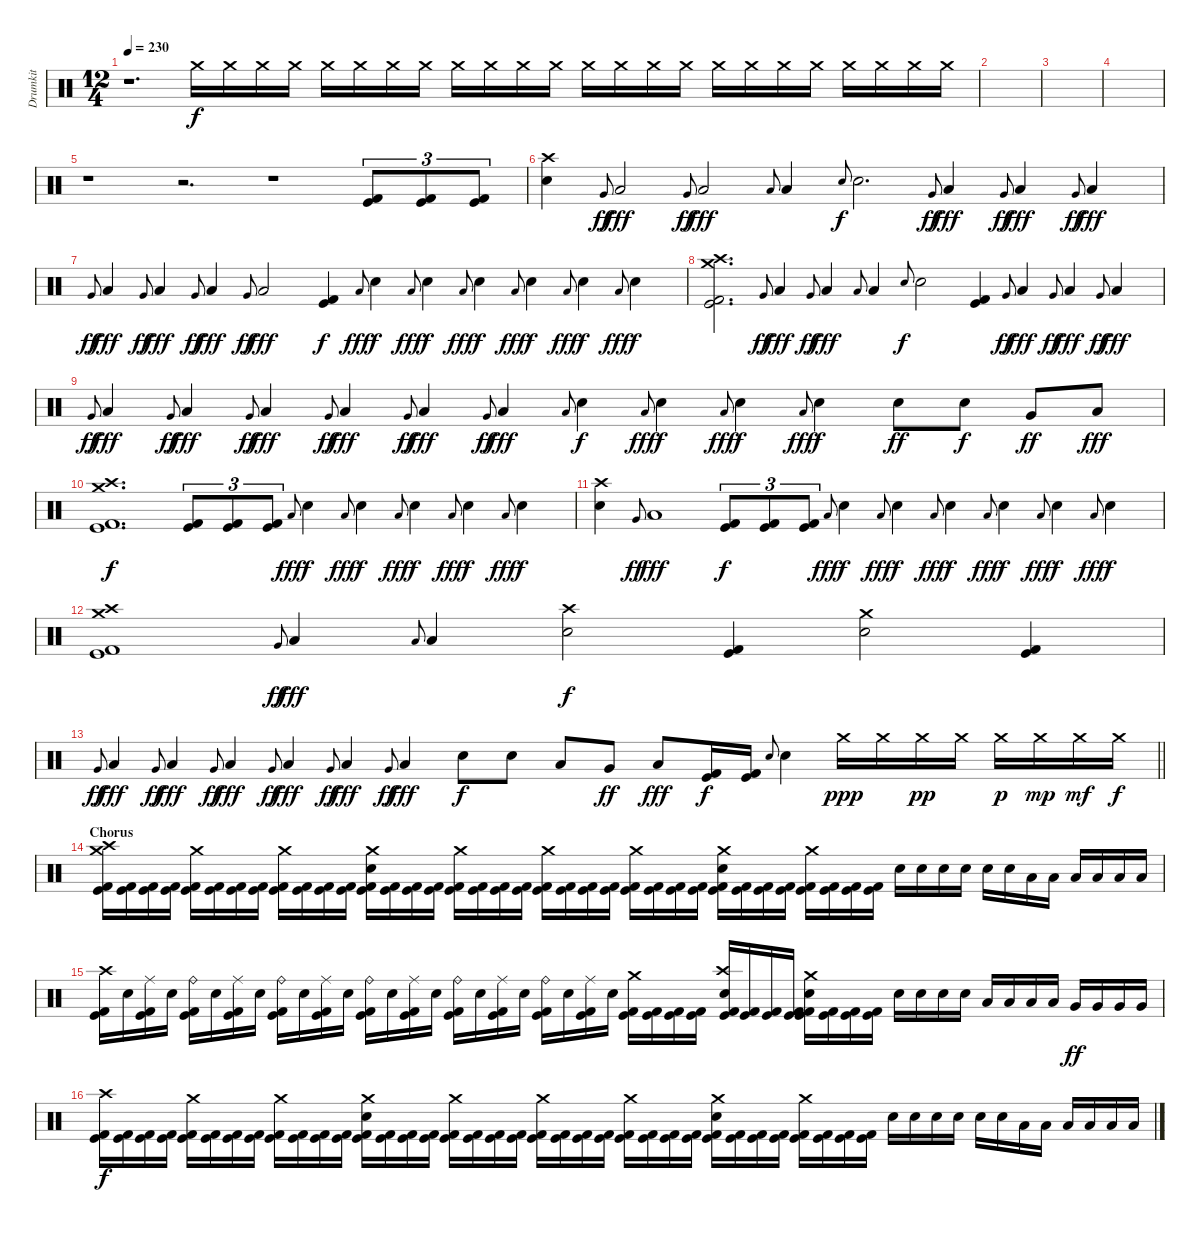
\track ("Drumkit" "Drumkit") {instrument percussion}
\staff {score}
\articulation defaults
\ts (12 4)
\tempo 230
\clef neutral
\ks c
r.1{d dy f volume 0} "Crash medium (hit)".16{volume 14} "Crash medium (hit)".16 "Crash medium (hit)".16 "Crash medium (hit)".16 "Crash medium (hit)".16 "Crash medium (hit)".16 "Crash medium (hit)".16 "Crash medium (hit)".16 "Crash medium (hit)".16 "Crash medium (hit)".16 "Crash medium (hit)".16 "Crash medium (hit)".16 "Crash medium (hit)".16 "Crash medium (hit)".16 "Crash medium (hit)".16 "Crash medium (hit)".16 "Crash medium (hit)".16 "Crash medium (hit)".16 "Crash medium (hit)".16 "Crash medium (hit)".16 "Crash medium (hit)".16 "Crash medium (hit)".16 "Crash medium (hit)".16 "Crash medium (hit)".16 |
|
|
|
r.1 r.2{d} r.1 ("Kick (hit)" "Kick (hit) 2").8{tu (3 2)} ("Kick (hit)" "Kick (hit) 2").8{tu (3 2)} ("Kick (hit)" "Kick (hit) 2").8{tu (3 2)} |
("Crash high (hit)" "Electric Snare (hit)").4 "Very Low Tom (hit)".8{gr onbeat dy ff} "Low Floor Tom (hit)".2{dy fff} "Very Low Tom (hit)".8{gr onbeat dy ff} "Low Floor Tom (hit)".2{dy fff} "Low Floor Tom (hit)".8{gr onbeat} "Low Floor Tom (hit)".4 "Electric Snare (hit)".8{gr onbeat dy f} "Electric Snare (hit)".2{d} "Very Low Tom (hit)".8{gr onbeat dy ff} "Low Floor Tom (hit)".4{dy fff} "Very Low Tom (hit)".8{gr onbeat dy ff} "Low Floor Tom (hit)".4{dy fff} "Very Low Tom (hit)".8{gr onbeat dy ff} "Low Floor Tom (hit)".4{dy fff} |
"Very Low Tom (hit)".8{gr onbeat dy ff} "Low Floor Tom (hit)".4{dy fff} "Very Low Tom (hit)".8{gr onbeat dy ff} "Low Floor Tom (hit)".4{dy fff} "Very Low Tom (hit)".8{gr onbeat dy ff} "Low Floor Tom (hit)".4{dy fff} "Very Low Tom (hit)".8{gr onbeat dy ff} "Low Floor Tom (hit)".2{dy fff} ("Kick (hit)" "Kick (hit) 2").4{dy f} "Low Floor Tom (hit)".8{gr onbeat dy fff} "Electric Snare (hit)".4{dy f} "Low Floor Tom (hit)".8{gr onbeat dy fff} "Electric Snare (hit)".4{dy f} "Low Floor Tom (hit)".8{gr onbeat dy fff} "Electric Snare (hit)".4{dy f} "Low Floor Tom (hit)".8{gr onbeat dy fff} "Electric Snare (hit)".4{dy f} "Low Floor Tom (hit)".8{gr onbeat dy fff} "Electric Snare (hit)".4{dy f} "Low Floor Tom (hit)".8{gr onbeat dy fff} "Electric Snare (hit)".4{dy f} |
("Crash high (hit)" "Crash medium (hit)" "Kick (hit)" "Kick (hit) 2").2{d} "Very Low Tom (hit)".8{gr onbeat dy ff} "Low Floor Tom (hit)".4{dy fff} "Very Low Tom (hit)".8{gr onbeat dy ff} "Low Floor Tom (hit)".4{dy fff} "Low Floor Tom (hit)".8{gr onbeat} "Low Floor Tom (hit)".4 "Electric Snare (hit)".8{gr onbeat dy f} "Electric Snare (hit)".2 ("Kick (hit)" "Kick (hit) 2").4 "Very Low Tom (hit)".8{gr onbeat dy ff} "Low Floor Tom (hit)".4{dy fff} "Very Low Tom (hit)".8{gr onbeat dy ff} "Low Floor Tom (hit)".4{dy fff} "Very Low Tom (hit)".8{gr onbeat dy ff} "Low Floor Tom (hit)".4{dy fff} |
"Very Low Tom (hit)".8{gr onbeat dy ff} "Low Floor Tom (hit)".4{dy fff} "Very Low Tom (hit)".8{gr onbeat dy ff} "Low Floor Tom (hit)".4{dy fff} "Very Low Tom (hit)".8{gr onbeat dy ff} "Low Floor Tom (hit)".4{dy fff} "Very Low Tom (hit)".8{gr onbeat dy ff} "Low Floor Tom (hit)".4{dy fff} "Very Low Tom (hit)".8{gr onbeat dy ff} "Low Floor Tom (hit)".4{dy fff} "Very Low Tom (hit)".8{gr onbeat dy ff} "Low Floor Tom (hit)".4{dy fff} "Low Floor Tom (hit)".8{gr onbeat} "Electric Snare (hit)".4{dy f} "Low Floor Tom (hit)".8{gr onbeat dy fff} "Electric Snare (hit)".4{dy f} "Low Floor Tom (hit)".8{gr onbeat dy fff} "Electric Snare (hit)".4{dy f} "Low Floor Tom (hit)".8{gr onbeat dy fff} "Electric Snare (hit)".4{dy f} "Electric Snare (hit)".8{dy ff} "Electric Snare (hit)".8{dy f} "Very Low Tom (hit)".8{dy ff} "Low Floor Tom (hit)".8{dy fff} |
("Crash high (hit)" "Crash medium (hit)" "Kick (hit)" "Kick (hit) 2").1{d dy f} ("Kick (hit)" "Kick (hit) 2").8{tu (3 2)} ("Kick (hit)" "Kick (hit) 2").8{tu (3 2)} ("Kick (hit)" "Kick (hit) 2").8{tu (3 2)} "Low Floor Tom (hit)".8{gr onbeat dy fff} "Electric Snare (hit)".4{dy f} "Low Floor Tom (hit)".8{gr onbeat dy fff} "Electric Snare (hit)".4{dy f} "Low Floor Tom (hit)".8{gr onbeat dy fff} "Electric Snare (hit)".4{dy f} "Low Floor Tom (hit)".8{gr onbeat dy fff} "Electric Snare (hit)".4{dy f} "Low Floor Tom (hit)".8{gr onbeat dy fff} "Electric Snare (hit)".4{dy f} |
("Crash high (hit)" "Electric Snare (hit)").4 "Very Low Tom (hit)".8{gr onbeat dy ff} "Low Floor Tom (hit)".1{dy fff} ("Kick (hit)" "Kick (hit) 2").8{tu (3 2) dy f} ("Kick (hit)" "Kick (hit) 2").8{tu (3 2)} ("Kick (hit)" "Kick (hit) 2").8{tu (3 2)} "Low Floor Tom (hit)".8{gr onbeat dy fff} "Electric Snare (hit)".4{dy f} "Low Floor Tom (hit)".8{gr onbeat dy fff} "Electric Snare (hit)".4{dy f} "Low Floor Tom (hit)".8{gr onbeat dy fff} "Electric Snare (hit)".4{dy f} "Low Floor Tom (hit)".8{gr onbeat dy fff} "Electric Snare (hit)".4{dy f} "Low Floor Tom (hit)".8{gr onbeat dy fff} "Electric Snare (hit)".4{dy f} "Low Floor Tom (hit)".8{gr onbeat dy fff} "Electric Snare (hit)".4{dy f} |
("Crash high (hit)" "Crash medium (hit)" "Kick (hit)" "Kick (hit) 2").1 "Very Low Tom (hit)".8{gr onbeat dy ff} "Low Floor Tom (hit)".4{dy fff} "Low Floor Tom (hit)".8{gr onbeat} "Low Floor Tom (hit)".4 ("Crash high (hit)" "Electric Snare (hit)").2{dy f} ("Kick (hit)" "Kick (hit) 2").4 ("Crash medium (hit)" "Electric Snare (hit)").2 ("Kick (hit)" "Kick (hit) 2").4 |
\barLineRight lightlight "Very Low Tom (hit)".8{gr onbeat dy ff} "Low Floor Tom (hit)".4{dy fff} "Very Low Tom (hit)".8{gr onbeat dy ff} "Low Floor Tom (hit)".4{dy fff} "Very Low Tom (hit)".8{gr onbeat dy ff} "Low Floor Tom (hit)".4{dy fff} "Very Low Tom (hit)".8{gr onbeat dy ff} "Low Floor Tom (hit)".4{dy fff} "Very Low Tom (hit)".8{gr onbeat dy ff} "Low Floor Tom (hit)".4{dy fff} "Very Low Tom (hit)".8{gr onbeat dy ff} "Low Floor Tom (hit)".4{dy fff} "Electric Snare (hit)".8{dy f} "Electric Snare (hit)".8 "Low Tom (hit)".8 "Very Low Tom (hit)".8{dy ff} "Low Floor Tom (hit)".8{dy fff}
("Kick (hit)" "Kick (hit) 2").16{dy f} ("Kick (hit)" "Kick (hit) 2").16 "Electric Snare (hit)".8{gr onbeat} "Electric Snare (hit)".4 "Crash medium (hit)".16{dy ppp} "Crash medium (hit)".16 "Crash medium (hit)".16{dy pp} "Crash medium (hit)".16 "Crash medium (hit)".16{dy p} "Crash medium (hit)".16{dy mp} "Crash medium (hit)".16{dy mf} "Crash medium (hit)".16{dy f} |
\section ("" "Chorus")
("Crash high (hit)" "Crash medium (hit)" "Kick (hit)" "Kick (hit) 2").16 ("Kick (hit)" "Kick (hit) 2").16 ("Kick (hit)" "Kick (hit) 2").16 ("Kick (hit)" "Kick (hit) 2").16 ("Crash medium (hit)" "Kick (hit)" "Kick (hit) 2").16 ("Kick (hit)" "Kick (hit) 2").16 ("Kick (hit)" "Kick (hit) 2").16 ("Kick (hit)" "Kick (hit) 2").16 ("Crash medium (hit)" "Kick (hit)" "Kick (hit) 2").16 ("Kick (hit)" "Kick (hit) 2").16 ("Kick (hit)" "Kick (hit) 2").16 ("Kick (hit)" "Kick (hit) 2").16 ("Crash medium (hit)" "Electric Snare (hit)" "Kick (hit)" "Kick (hit) 2").16 ("Kick (hit)" "Kick (hit) 2").16 ("Kick (hit)" "Kick (hit) 2").16 ("Kick (hit)" "Kick (hit) 2").16 ("Crash medium (hit)" "Kick (hit)" "Kick (hit) 2").16 ("Kick (hit)" "Kick (hit) 2").16 ("Kick (hit)" "Kick (hit) 2").16 ("Kick (hit)" "Kick (hit) 2").16 ("Crash medium (hit)" "Kick (hit)" "Kick (hit) 2").16 ("Kick (hit)" "Kick (hit) 2").16 ("Kick (hit)" "Kick (hit) 2").16 ("Kick (hit)" "Kick (hit) 2").16 ("Crash medium (hit)" "Kick (hit)" "Kick (hit) 2").16 ("Kick (hit)" "Kick (hit) 2").16 ("Kick (hit)" "Kick (hit) 2").16 ("Kick (hit)" "Kick (hit) 2").16 ("Crash medium (hit)" "Electric Snare (hit)" "Kick (hit)" "Kick (hit) 2").16 ("Kick (hit)" "Kick (hit) 2").16 ("Kick (hit)" "Kick (hit) 2").16 ("Kick (hit)" "Kick (hit) 2").16 ("Crash medium (hit)" "Kick (hit)" "Kick (hit) 2").16 ("Kick (hit)" "Kick (hit) 2").16 ("Kick (hit)" "Kick (hit) 2").16 ("Kick (hit)" "Kick (hit) 2").16 "Electric Snare (hit)".16 "Electric Snare (hit)".16 "Electric Snare (hit)".16 "Electric Snare (hit)".16 "Electric Snare (hit)".16 "Electric Snare (hit)".16 "Low Tom (hit)".16 "Low Tom (hit)".16 "Low Tom (hit)".16 "Low Tom (hit)".16 "Low Tom (hit)".16 "Low Tom (hit)".16 |
("Crash high (hit)" "Kick (hit)" "Kick (hit) 2").16 "Electric Snare (hit)".16 ("Ride (middle)" "Kick (hit)" "Kick (hit) 2").16 "Electric Snare (hit)".16 ("Ride (bell)" "Kick (hit)" "Kick (hit) 2").16 "Electric Snare (hit)".16 ("Ride (middle)" "Kick (hit)" "Kick (hit) 2").16 "Electric Snare (hit)".16 ("Ride (bell)" "Kick (hit)" "Kick (hit) 2").16 "Electric Snare (hit)".16 ("Ride (middle)" "Kick (hit)" "Kick (hit) 2").16 "Electric Snare (hit)".16 ("Ride (bell)" "Kick (hit)" "Kick (hit) 2").16 "Electric Snare (hit)".16 ("Ride (middle)" "Kick (hit)" "Kick (hit) 2").16 "Electric Snare (hit)".16 ("Ride (bell)" "Kick (hit)" "Kick (hit) 2").16 "Electric Snare (hit)".16 ("Ride (middle)" "Kick (hit)" "Kick (hit) 2").16 "Electric Snare (hit)".16 ("Ride (bell)" "Kick (hit)" "Kick (hit) 2").16 "Electric Snare (hit)".16 ("Ride (middle)" "Kick (hit)" "Kick (hit) 2").16 "Electric Snare (hit)".16 ("Crash medium (hit)" "Kick (hit)" "Kick (hit) 2").16 ("Kick (hit)" "Kick (hit) 2").16 ("Kick (hit)" "Kick (hit) 2").16 ("Kick (hit)" "Kick (hit) 2").16 ("Crash high (hit)" "Electric Snare (hit)" "Kick (hit)" "Kick (hit) 2").16 ("Kick (hit)" "Kick (hit) 2").16 ("Kick (hit)" "Kick (hit) 2").16 ("Kick (hit)" "Kick (hit) 2").16 ("Crash medium (hit)" "Electric Snare (hit)" "Kick (hit)" "Kick (hit) 2").16 ("Kick (hit)" "Kick (hit) 2").16 ("Kick (hit)" "Kick (hit) 2").16 ("Kick (hit)" "Kick (hit) 2").16 "Electric Snare (hit)".16 "Electric Snare (hit)".16 "Electric Snare (hit)".16 "Electric Snare (hit)".16 "Low Tom (hit)".16 "Low Tom (hit)".16 "Low Tom (hit)".16 "Low Tom (hit)".16 "Very Low Tom (hit)".16{dy ff} "Very Low Tom (hit)".16 "Very Low Tom (hit)".16 "Very Low Tom (hit)".16 |
("Crash high (hit)" "Kick (hit)" "Kick (hit) 2").16{dy f} ("Kick (hit)" "Kick (hit) 2").16 ("Kick (hit)" "Kick (hit) 2").16 ("Kick (hit)" "Kick (hit) 2").16 ("Crash medium (hit)" "Kick (hit)" "Kick (hit) 2").16 ("Kick (hit)" "Kick (hit) 2").16 ("Kick (hit)" "Kick (hit) 2").16 ("Kick (hit)" "Kick (hit) 2").16 ("Crash medium (hit)" "Kick (hit)" "Kick (hit) 2").16 ("Kick (hit)" "Kick (hit) 2").16 ("Kick (hit)" "Kick (hit) 2").16 ("Kick (hit)" "Kick (hit) 2").16 ("Crash medium (hit)" "Electric Snare (hit)" "Kick (hit)" "Kick (hit) 2").16 ("Kick (hit)" "Kick (hit) 2").16 ("Kick (hit)" "Kick (hit) 2").16 ("Kick (hit)" "Kick (hit) 2").16 ("Crash medium (hit)" "Kick (hit)" "Kick (hit) 2").16 ("Kick (hit)" "Kick (hit) 2").16 ("Kick (hit)" "Kick (hit) 2").16 ("Kick (hit)" "Kick (hit) 2").16 ("Crash medium (hit)" "Kick (hit)" "Kick (hit) 2").16 ("Kick (hit)" "Kick (hit) 2").16 ("Kick (hit)" "Kick (hit) 2").16 ("Kick (hit)" "Kick (hit) 2").16 ("Crash medium (hit)" "Kick (hit)" "Kick (hit) 2").16 ("Kick (hit)" "Kick (hit) 2").16 ("Kick (hit)" "Kick (hit) 2").16 ("Kick (hit)" "Kick (hit) 2").16 ("Crash medium (hit)" "Electric Snare (hit)" "Kick (hit)" "Kick (hit) 2").16 ("Kick (hit)" "Kick (hit) 2").16 ("Kick (hit)" "Kick (hit) 2").16 ("Kick (hit)" "Kick (hit) 2").16 ("Crash medium (hit)" "Kick (hit)" "Kick (hit) 2").16 ("Kick (hit)" "Kick (hit) 2").16 ("Kick (hit)" "Kick (hit) 2").16 ("Kick (hit)" "Kick (hit) 2").16 "Electric Snare (hit)".16 "Electric Snare (hit)".16 "Electric Snare (hit)".16 "Electric Snare (hit)".16 "Electric Snare (hit)".16 "Electric Snare (hit)".16 "Low Tom (hit)".16 "Low Tom (hit)".16 "Low Tom (hit)".16 "Low Tom (hit)".16 "Low Tom (hit)".16 "Low Tom (hit)".16
